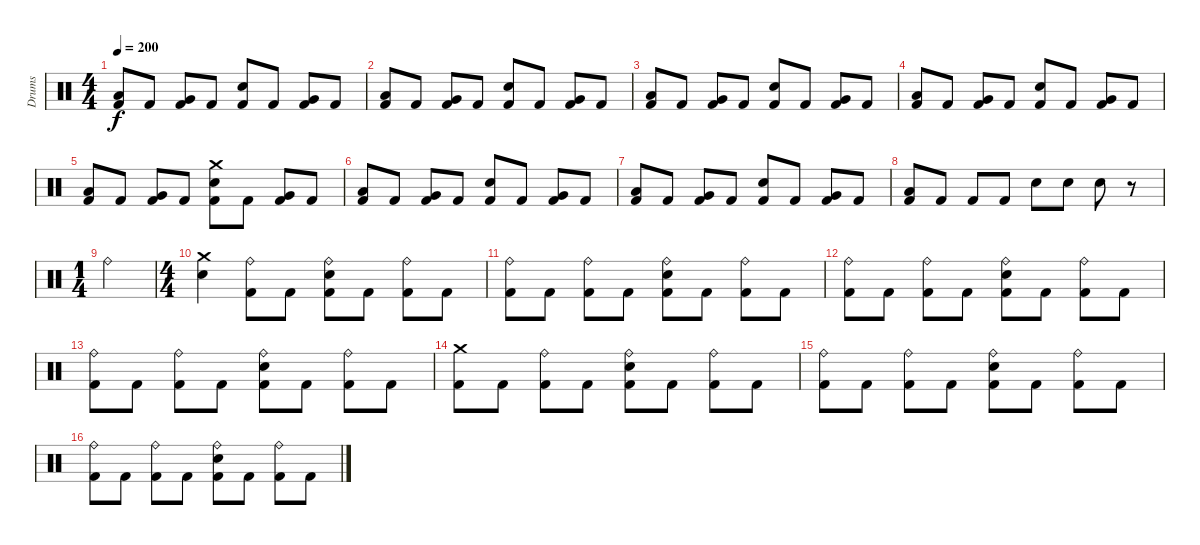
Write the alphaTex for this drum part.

\track ("Drums" "Drums") {instrument percussion}
\staff {score}
\articulation defaults
\ts (4 4)
\tempo 200
\clef neutral
\ks c
("Low Tom (hit)" "Kick (hit) 2").8{dy f} "Kick (hit) 2".8 ("Very Low Tom (hit)" "Kick (hit) 2").8 "Kick (hit) 2".8 ("Snare (hit) 2" "Kick (hit) 2").8 "Kick (hit) 2".8 ("Very Low Tom (hit)" "Kick (hit) 2").8 "Kick (hit) 2".8 |
("Low Tom (hit)" "Kick (hit) 2").8 "Kick (hit) 2".8 ("Very Low Tom (hit)" "Kick (hit) 2").8 "Kick (hit) 2".8 ("Snare (hit) 2" "Kick (hit) 2").8 "Kick (hit) 2".8 ("Very Low Tom (hit)" "Kick (hit) 2").8 "Kick (hit) 2".8 |
("Low Tom (hit)" "Kick (hit) 2").8 "Kick (hit) 2".8 ("Very Low Tom (hit)" "Kick (hit) 2").8 "Kick (hit) 2".8 ("Snare (hit) 2" "Kick (hit) 2").8 "Kick (hit) 2".8 ("Very Low Tom (hit)" "Kick (hit) 2").8 "Kick (hit) 2".8 |
("Low Tom (hit)" "Kick (hit) 2").8 "Kick (hit) 2".8 ("Very Low Tom (hit)" "Kick (hit) 2").8 "Kick (hit) 2".8 ("Snare (hit) 2" "Kick (hit) 2").8 "Kick (hit) 2".8 ("Very Low Tom (hit)" "Kick (hit) 2").8 "Kick (hit) 2".8 |
("Low Tom (hit)" "Kick (hit) 2").8 "Kick (hit) 2".8 ("Very Low Tom (hit)" "Kick (hit) 2").8 "Kick (hit) 2".8 ("Crash medium (hit)" "Snare (hit) 2" "Kick (hit) 2").8 "Kick (hit) 2".8 ("Very Low Tom (hit)" "Kick (hit) 2").8 "Kick (hit) 2".8 |
("Low Tom (hit)" "Kick (hit) 2").8 "Kick (hit) 2".8 ("Very Low Tom (hit)" "Kick (hit) 2").8 "Kick (hit) 2".8 ("Snare (hit) 2" "Kick (hit) 2").8 "Kick (hit) 2".8 ("Very Low Tom (hit)" "Kick (hit) 2").8 "Kick (hit) 2".8 |
("Low Tom (hit)" "Kick (hit) 2").8 "Kick (hit) 2".8 ("Very Low Tom (hit)" "Kick (hit) 2").8 "Kick (hit) 2".8 ("Snare (hit) 2" "Kick (hit) 2").8 "Kick (hit) 2".8 ("Very Low Tom (hit)" "Kick (hit) 2").8 "Kick (hit) 2".8 |
("Low Tom (hit)" "Kick (hit) 2").8 "Kick (hit) 2".8 "Kick (hit) 2".8 "Kick (hit) 2".8 "Snare (hit) 2".8 "Snare (hit) 2".8 "Snare (hit) 2".8 r.8 |
\ts (1 4)
"Ride (bell)".4 |
\ts (4 4)
("Crash medium (hit)" "Snare (hit) 2").4 ("Ride (bell)" "Kick (hit) 2").8 "Kick (hit) 2".8 ("Ride (bell)" "Snare (hit) 2" "Kick (hit) 2").8 "Kick (hit) 2".8 ("Ride (bell)" "Kick (hit) 2").8 "Kick (hit) 2".8 |
("Ride (bell)" "Kick (hit) 2").8 "Kick (hit) 2".8 ("Ride (bell)" "Kick (hit) 2").8 "Kick (hit) 2".8 ("Ride (bell)" "Snare (hit) 2" "Kick (hit) 2").8 "Kick (hit) 2".8 ("Ride (bell)" "Kick (hit) 2").8 "Kick (hit) 2".8 |
("Ride (bell)" "Kick (hit) 2").8 "Kick (hit) 2".8 ("Ride (bell)" "Kick (hit) 2").8 "Kick (hit) 2".8 ("Ride (bell)" "Snare (hit) 2" "Kick (hit) 2").8 "Kick (hit) 2".8 ("Ride (bell)" "Kick (hit) 2").8 "Kick (hit) 2".8 |
("Ride (bell)" "Kick (hit) 2").8 "Kick (hit) 2".8 ("Ride (bell)" "Kick (hit) 2").8 "Kick (hit) 2".8 ("Ride (bell)" "Snare (hit) 2" "Kick (hit) 2").8 "Kick (hit) 2".8 ("Ride (bell)" "Kick (hit) 2").8 "Kick (hit) 2".8 |
("Crash medium (hit)" "Kick (hit) 2").8 "Kick (hit) 2".8 ("Ride (bell)" "Kick (hit) 2").8 "Kick (hit) 2".8 ("Ride (bell)" "Snare (hit) 2" "Kick (hit) 2").8 "Kick (hit) 2".8 ("Ride (bell)" "Kick (hit) 2").8 "Kick (hit) 2".8 |
("Ride (bell)" "Kick (hit) 2").8 "Kick (hit) 2".8 ("Ride (bell)" "Kick (hit) 2").8 "Kick (hit) 2".8 ("Ride (bell)" "Snare (hit) 2" "Kick (hit) 2").8 "Kick (hit) 2".8 ("Ride (bell)" "Kick (hit) 2").8 "Kick (hit) 2".8 |
("Ride (bell)" "Kick (hit) 2").8 "Kick (hit) 2".8 ("Ride (bell)" "Kick (hit) 2").8 "Kick (hit) 2".8 ("Ride (bell)" "Snare (hit) 2" "Kick (hit) 2").8 "Kick (hit) 2".8 ("Ride (bell)" "Kick (hit) 2").8 "Kick (hit) 2".8
